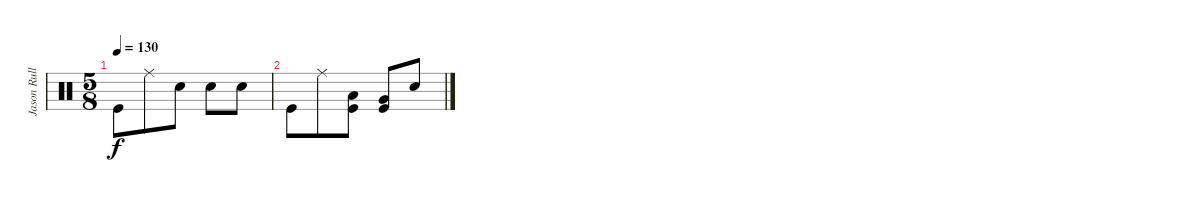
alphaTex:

\track ("Jason Rullo - Batterie" "Jason Rull") {instrument percussion}
\staff {score}
\articulation defaults
\ts (5 8)
\tempo 130
\clef neutral
\ks c "Kick (hit)".8{dy f} "Ride (middle)".8 "Snare (hit) 2".8 "Snare (hit) 2".8 "Snare (hit) 2".8
|
"Kick (hit)".8 "Ride (middle)".8 ("Low Tom (hit)" "Kick (hit)").8 ("Very Low Tom (hit)" "Kick (hit)").8 "Snare (hit) 2".8
